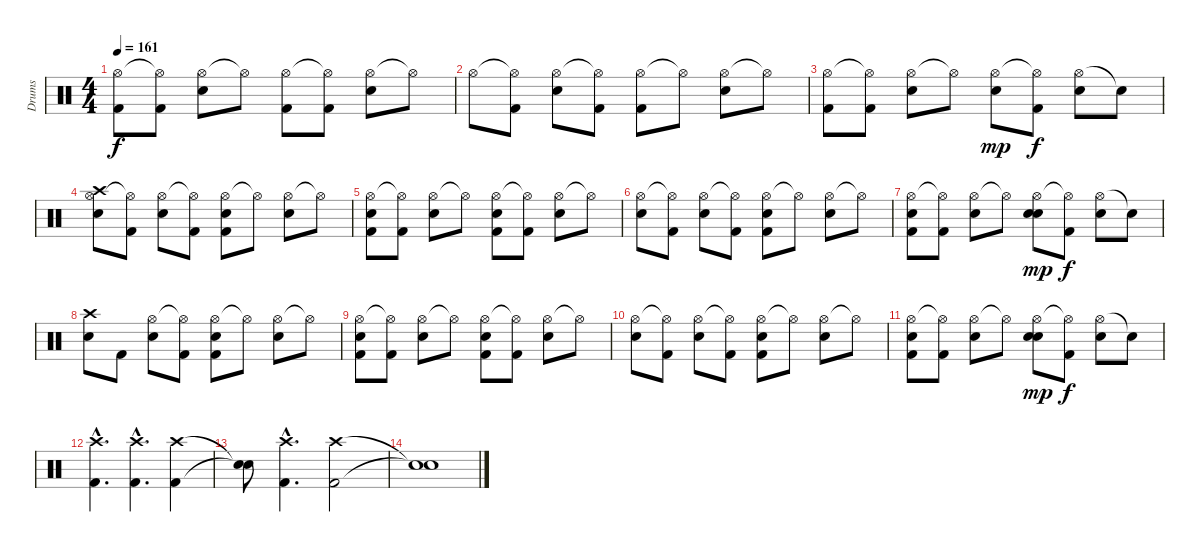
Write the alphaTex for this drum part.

\track ("Drums" "Drums") {instrument percussion}
\staff {score}
\articulation defaults
\ts (4 4)
\tempo 161
\clef neutral
\ks c
("Hi-Hat (open)" "Kick (hit) 2").8{dy f} ("Hi-Hat (open)"{t} "Kick (hit) 2").8 ("Hi-Hat (open)" "Electric Snare (hit)").8 "Hi-Hat (open)"{t}.8 ("Hi-Hat (open)" "Kick (hit) 2").8 ("Hi-Hat (open)"{t} "Kick (hit) 2").8 ("Hi-Hat (open)" "Electric Snare (hit)").8 "Hi-Hat (open)"{t}.8 |
"Hi-Hat (open)".8 ("Hi-Hat (open)"{t} "Kick (hit) 2").8 ("Hi-Hat (open)" "Electric Snare (hit)").8 ("Hi-Hat (open)"{t} "Kick (hit) 2").8 ("Hi-Hat (open)" "Kick (hit) 2").8 "Hi-Hat (open)"{t}.8 ("Hi-Hat (open)" "Electric Snare (hit)").8 "Hi-Hat (open)"{t}.8 |
("Hi-Hat (open)" "Kick (hit) 2").8 ("Hi-Hat (open)"{t} "Kick (hit) 2").8 ("Hi-Hat (open)" "Electric Snare (hit)").8 "Hi-Hat (open)"{t}.8 ("Hi-Hat (open)" "Electric Snare (hit)").8{dy mp} ("Hi-Hat (open)"{t} "Kick (hit) 2").8{dy f} ("Hi-Hat (open)" "Electric Snare (hit)").8 "Snare (hit)"{t}.8 |
("Hi-Hat (open)" "Electric Snare (hit)" "Crash high (hit)").8 ("Hi-Hat (open)"{t} "Kick (hit) 2").8 ("Hi-Hat (open)" "Electric Snare (hit)").8 ("Hi-Hat (open)"{t} "Kick (hit) 2").8 ("Hi-Hat (open)" "Kick (hit) 2" "Electric Snare (hit)").8 "Hi-Hat (open)"{t}.8 ("Hi-Hat (open)" "Electric Snare (hit)").8 "Hi-Hat (open)"{t}.8 |
("Hi-Hat (open)" "Kick (hit) 2" "Electric Snare (hit)").8 ("Hi-Hat (open)"{t} "Kick (hit) 2").8 ("Hi-Hat (open)" "Electric Snare (hit)").8 "Hi-Hat (open)"{t}.8 ("Hi-Hat (open)" "Kick (hit) 2" "Electric Snare (hit)").8 ("Hi-Hat (open)"{t} "Kick (hit) 2").8 ("Hi-Hat (open)" "Electric Snare (hit)").8 "Hi-Hat (open)"{t}.8 |
("Hi-Hat (open)" "Electric Snare (hit)").8 ("Hi-Hat (open)"{t} "Kick (hit) 2").8 ("Hi-Hat (open)" "Electric Snare (hit)").8 ("Hi-Hat (open)"{t} "Kick (hit) 2").8 ("Hi-Hat (open)" "Kick (hit) 2" "Electric Snare (hit)").8 "Hi-Hat (open)"{t}.8 ("Hi-Hat (open)" "Electric Snare (hit)").8 "Hi-Hat (open)"{t}.8 |
("Hi-Hat (open)" "Kick (hit) 2" "Electric Snare (hit)").8 ("Hi-Hat (open)"{t} "Kick (hit) 2").8 ("Hi-Hat (open)" "Electric Snare (hit)").8 "Hi-Hat (open)"{t}.8 ("Hi-Hat (open)" "Electric Snare (hit)" "Electric Snare (hit)").8{dy mp} ("Hi-Hat (open)"{t} "Kick (hit) 2").8{dy f} ("Hi-Hat (open)" "Electric Snare (hit)").8 "Snare (hit)"{t}.8 |
("Electric Snare (hit)" "Crash high (hit)").8 "Kick (hit) 2".8 ("Hi-Hat (open)" "Electric Snare (hit)").8 ("Hi-Hat (open)"{t} "Kick (hit) 2").8 ("Hi-Hat (open)" "Kick (hit) 2" "Electric Snare (hit)").8 "Hi-Hat (open)"{t}.8 ("Hi-Hat (open)" "Electric Snare (hit)").8 "Hi-Hat (open)"{t}.8 |
("Hi-Hat (open)" "Kick (hit) 2" "Electric Snare (hit)").8 ("Hi-Hat (open)"{t} "Kick (hit) 2").8 ("Hi-Hat (open)" "Electric Snare (hit)").8 "Hi-Hat (open)"{t}.8 ("Hi-Hat (open)" "Kick (hit) 2" "Electric Snare (hit)").8 ("Hi-Hat (open)"{t} "Kick (hit) 2").8 ("Hi-Hat (open)" "Electric Snare (hit)").8 "Hi-Hat (open)"{t}.8 |
("Hi-Hat (open)" "Electric Snare (hit)").8 ("Hi-Hat (open)"{t} "Kick (hit) 2").8 ("Hi-Hat (open)" "Electric Snare (hit)").8 ("Hi-Hat (open)"{t} "Kick (hit) 2").8 ("Hi-Hat (open)" "Kick (hit) 2" "Electric Snare (hit)").8 "Hi-Hat (open)"{t}.8 ("Hi-Hat (open)" "Electric Snare (hit)").8 "Hi-Hat (open)"{t}.8 |
("Hi-Hat (open)" "Kick (hit) 2" "Electric Snare (hit)").8 ("Hi-Hat (open)"{t} "Kick (hit) 2").8 ("Hi-Hat (open)" "Electric Snare (hit)").8 "Hi-Hat (open)"{t}.8 ("Hi-Hat (open)" "Electric Snare (hit)" "Electric Snare (hit)").8{dy mp} ("Hi-Hat (open)"{t} "Kick (hit) 2").8{dy f} ("Hi-Hat (open)" "Electric Snare (hit)").8 "Snare (hit)"{t}.8 |
("Kick (hit) 2"{hac} "Crash high (hit)"{hac}).4{d} ("Kick (hit) 2"{hac} "Crash high (hit)"{hac}).4{d} ("Kick (hit) 2" "Crash high (hit)").4 |
("Snare (hit)"{t} "Snare (hit)"{t}).8 ("Kick (hit) 2"{hac} "Crash high (hit)"{hac}).4{d} ("Kick (hit) 2" "Crash high (hit)").2 |
("Snare (hit)"{t} "Snare (hit)"{t}).1
